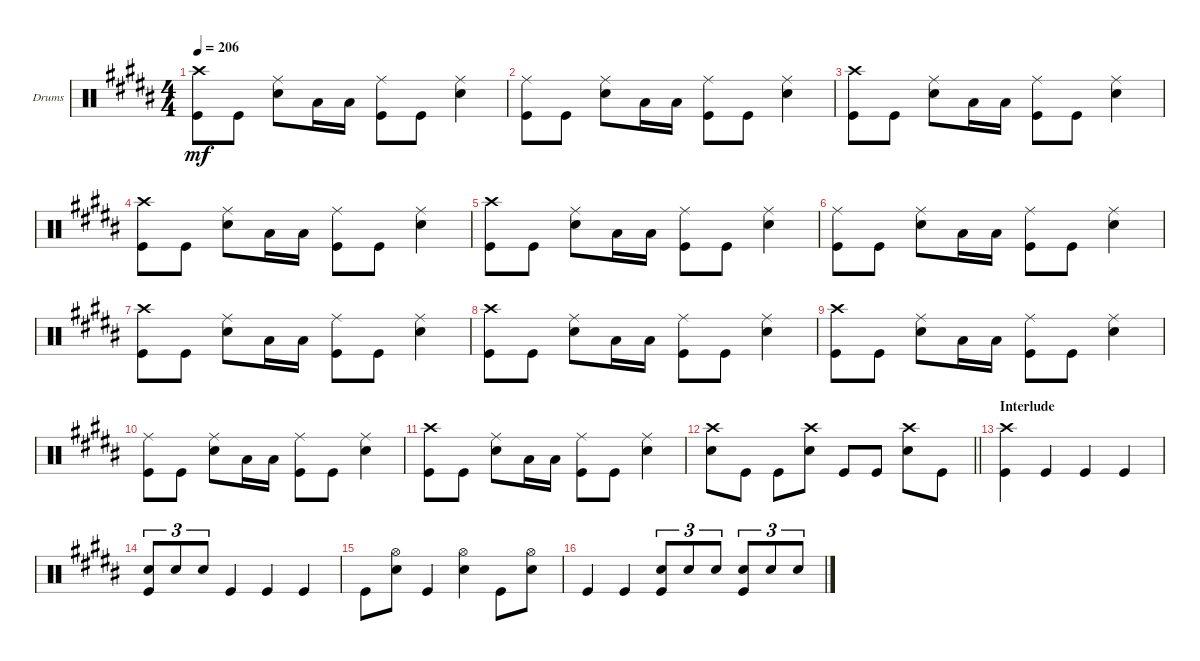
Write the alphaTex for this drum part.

\defaultSystemsLayout 4
\bracketExtendMode groupsimilarinstruments
\firstSystemTrackNameOrientation horizontal
\otherSystemsTrackNameOrientation horizontal
\track ("Drums" "Drums") {instrument percussion}
\staff {score}
\articulation defaults
\ts (4 4)
\tempo 206
\clef neutral
\ks b
("Kick (hit)" "Crash high (hit)").8{dy mf} "Kick (hit)".8 ("Snare (hit) 2" "Ride (middle)").8 "Low Tom (hit)".16 "Low Tom (hit)".16 ("Kick (hit)" "Ride (middle)").8 "Kick (hit)".8 ("Snare (hit) 2" "Ride (middle)").4 |
("Kick (hit)" "Ride (middle)").8 "Kick (hit)".8 ("Snare (hit) 2" "Ride (middle)").8 "Low Tom (hit)".16 "Low Tom (hit)".16 ("Kick (hit)" "Ride (middle)").8 "Kick (hit)".8 ("Snare (hit) 2" "Ride (middle)").4 |
("Kick (hit)" "Crash high (hit)").8 "Kick (hit)".8 ("Snare (hit) 2" "Ride (middle)").8 "Low Tom (hit)".16 "Low Tom (hit)".16 ("Kick (hit)" "Ride (middle)").8 "Kick (hit)".8 ("Snare (hit) 2" "Ride (middle)").4 |
("Kick (hit)" "Crash high (hit)").8 "Kick (hit)".8 ("Snare (hit) 2" "Ride (middle)").8 "Low Tom (hit)".16 "Low Tom (hit)".16 ("Kick (hit)" "Ride (middle)").8 "Kick (hit)".8 ("Snare (hit) 2" "Ride (middle)").4 |
("Kick (hit)" "Crash high (hit)").8 "Kick (hit)".8 ("Snare (hit) 2" "Ride (middle)").8 "Low Tom (hit)".16 "Low Tom (hit)".16 ("Kick (hit)" "Ride (middle)").8 "Kick (hit)".8 ("Snare (hit) 2" "Ride (middle)").4 |
("Kick (hit)" "Ride (middle)").8 "Kick (hit)".8 ("Snare (hit) 2" "Ride (middle)").8 "Low Tom (hit)".16 "Low Tom (hit)".16 ("Kick (hit)" "Ride (middle)").8 "Kick (hit)".8 ("Snare (hit) 2" "Ride (middle)").4 |
("Kick (hit)" "Crash high (hit)").8 "Kick (hit)".8 ("Snare (hit) 2" "Ride (middle)").8 "Low Tom (hit)".16 "Low Tom (hit)".16 ("Kick (hit)" "Ride (middle)").8 "Kick (hit)".8 ("Snare (hit) 2" "Ride (middle)").4 |
("Kick (hit)" "Crash high (hit)").8 "Kick (hit)".8 ("Snare (hit) 2" "Ride (middle)").8 "Low Tom (hit)".16 "Low Tom (hit)".16 ("Kick (hit)" "Ride (middle)").8 "Kick (hit)".8 ("Snare (hit) 2" "Ride (middle)").4 |
("Kick (hit)" "Crash high (hit)").8 "Kick (hit)".8 ("Snare (hit) 2" "Ride (middle)").8 "Low Tom (hit)".16 "Low Tom (hit)".16 ("Kick (hit)" "Ride (middle)").8 "Kick (hit)".8 ("Snare (hit) 2" "Ride (middle)").4 |
("Kick (hit)" "Ride (middle)").8 "Kick (hit)".8 ("Snare (hit) 2" "Ride (middle)").8 "Low Tom (hit)".16 "Low Tom (hit)".16 ("Kick (hit)" "Ride (middle)").8 "Kick (hit)".8 ("Snare (hit) 2" "Ride (middle)").4 |
("Kick (hit)" "Crash high (hit)").8 "Kick (hit)".8 ("Snare (hit) 2" "Ride (middle)").8 "Low Tom (hit)".16 "Low Tom (hit)".16 ("Kick (hit)" "Ride (middle)").8 "Kick (hit)".8 ("Snare (hit) 2" "Ride (middle)").4 |
\barLineRight lightlight
("Snare (hit) 2" "Crash high (hit)").8 "Kick (hit)".8 "Kick (hit)".8 ("Snare (hit) 2" "Crash high (hit)").8 "Kick (hit)".8 "Kick (hit)".8 ("Snare (hit) 2" "Crash high (hit)").8 "Kick (hit)".8 |
\section ("" "Interlude")
("Kick (hit)" "Crash high (hit)").4 "Kick (hit)".4 "Kick (hit)".4 "Kick (hit)".4 |
("Kick (hit)" "Snare (hit) 2").8{tu (3 2)} "Snare (hit) 2".8{tu (3 2)} "Snare (hit) 2".8{tu (3 2)} "Kick (hit)".4 "Kick (hit)".4 "Kick (hit)".4 |
"Kick (hit)".8 ("Snare (hit) 2" "Hi-Hat (open)").8 "Kick (hit)".4 ("Snare (hit) 2" "Hi-Hat (open)").4 "Kick (hit)".8 ("Snare (hit) 2" "Hi-Hat (open)").8 |
"Kick (hit)".4 "Kick (hit)".4 ("Snare (hit) 2" "Kick (hit)").8{tu (3 2)} "Snare (hit) 2".8{tu (3 2)} "Snare (hit) 2".8{tu (3 2)} ("Snare (hit) 2" "Kick (hit)").8{tu (3 2)} "Snare (hit) 2".8{tu (3 2)} "Snare (hit) 2".8{tu (3 2)}
